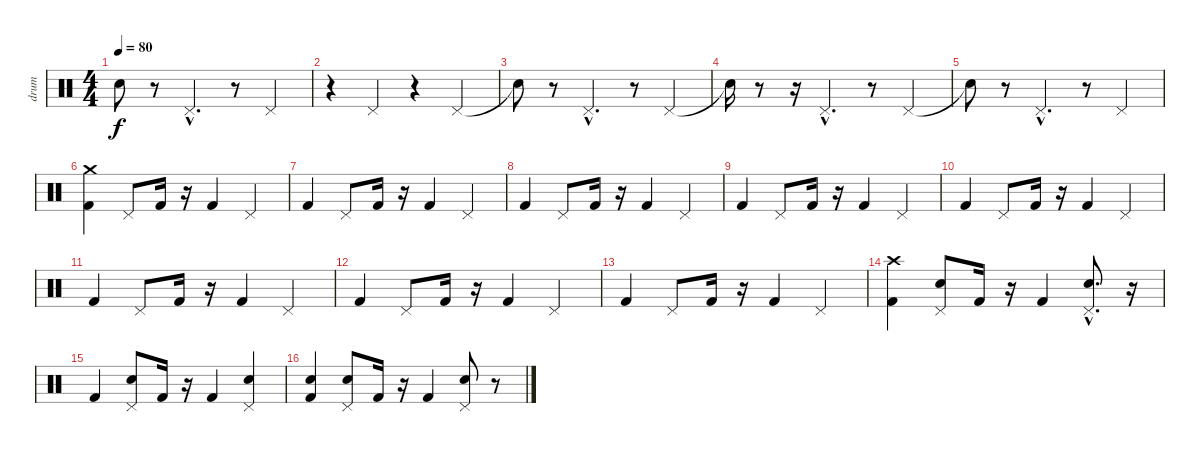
\track ("drum" "drum") {instrument percussion}
\staff {score}
\articulation defaults
\ts (4 4)
\tempo 80
\clef neutral
\ks c "Snare (hit)"{t}.8{dy f}
r.8 "Pedal Hi-Hat (hit)"{hac}.4{d} r.8 "Pedal Hi-Hat (hit)".4 |
r.4 "Pedal Hi-Hat (hit)".4 r.4 "Pedal Hi-Hat (hit)".4 |
"Snare (hit)"{t}.8 r.8 "Pedal Hi-Hat (hit)"{hac}.4{d} r.8 "Pedal Hi-Hat (hit)".4 |
"Snare (hit)"{t}.16 r.8 r.16 "Pedal Hi-Hat (hit)"{hac}.4{d} r.8 "Pedal Hi-Hat (hit)".4 |
"Snare (hit)"{t}.8 r.8 "Pedal Hi-Hat (hit)"{hac}.4{d} r.8 "Pedal Hi-Hat (hit)".4 |
("Crash medium (hit)" "Kick (hit) 2").4 "Pedal Hi-Hat (hit)".8 "Kick (hit) 2".16 r.16 "Kick (hit) 2".4 "Pedal Hi-Hat (hit)".4 |
"Kick (hit) 2".4 "Pedal Hi-Hat (hit)".8 "Kick (hit) 2".16 r.16 "Kick (hit) 2".4 "Pedal Hi-Hat (hit)".4 |
"Kick (hit) 2".4 "Pedal Hi-Hat (hit)".8 "Kick (hit) 2".16 r.16 "Kick (hit) 2".4 "Pedal Hi-Hat (hit)".4 |
"Kick (hit) 2".4 "Pedal Hi-Hat (hit)".8 "Kick (hit) 2".16 r.16 "Kick (hit) 2".4 "Pedal Hi-Hat (hit)".4 |
"Kick (hit) 2".4 "Pedal Hi-Hat (hit)".8 "Kick (hit) 2".16 r.16 "Kick (hit) 2".4 "Pedal Hi-Hat (hit)".4 |
"Kick (hit) 2".4 "Pedal Hi-Hat (hit)".8 "Kick (hit) 2".16 r.16 "Kick (hit) 2".4 "Pedal Hi-Hat (hit)".4 |
"Kick (hit) 2".4 "Pedal Hi-Hat (hit)".8 "Kick (hit) 2".16 r.16 "Kick (hit) 2".4 "Pedal Hi-Hat (hit)".4 |
"Kick (hit) 2".4 "Pedal Hi-Hat (hit)".8 "Kick (hit) 2".16 r.16 "Kick (hit) 2".4 "Pedal Hi-Hat (hit)".4 |
("Kick (hit) 2" "Crash high (hit)").4 ("Snare (hit) 2" "Pedal Hi-Hat (hit)").8 "Kick (hit) 2".16 r.16 "Kick (hit) 2".4 ("Pedal Hi-Hat (hit)"{hac} "Snare (hit) 2"{hac}).8{d} r.16 |
"Kick (hit) 2".4 ("Pedal Hi-Hat (hit)" "Snare (hit) 2").8 "Kick (hit) 2".16 r.16 "Kick (hit) 2".4 ("Pedal Hi-Hat (hit)" "Snare (hit) 2").4 |
("Snare (hit)" "Kick (hit) 2").4 ("Snare (hit) 2" "Pedal Hi-Hat (hit)").8 "Kick (hit) 2".16 r.16 "Kick (hit) 2".4 ("Pedal Hi-Hat (hit)" "Snare (hit) 2").8 r.8
